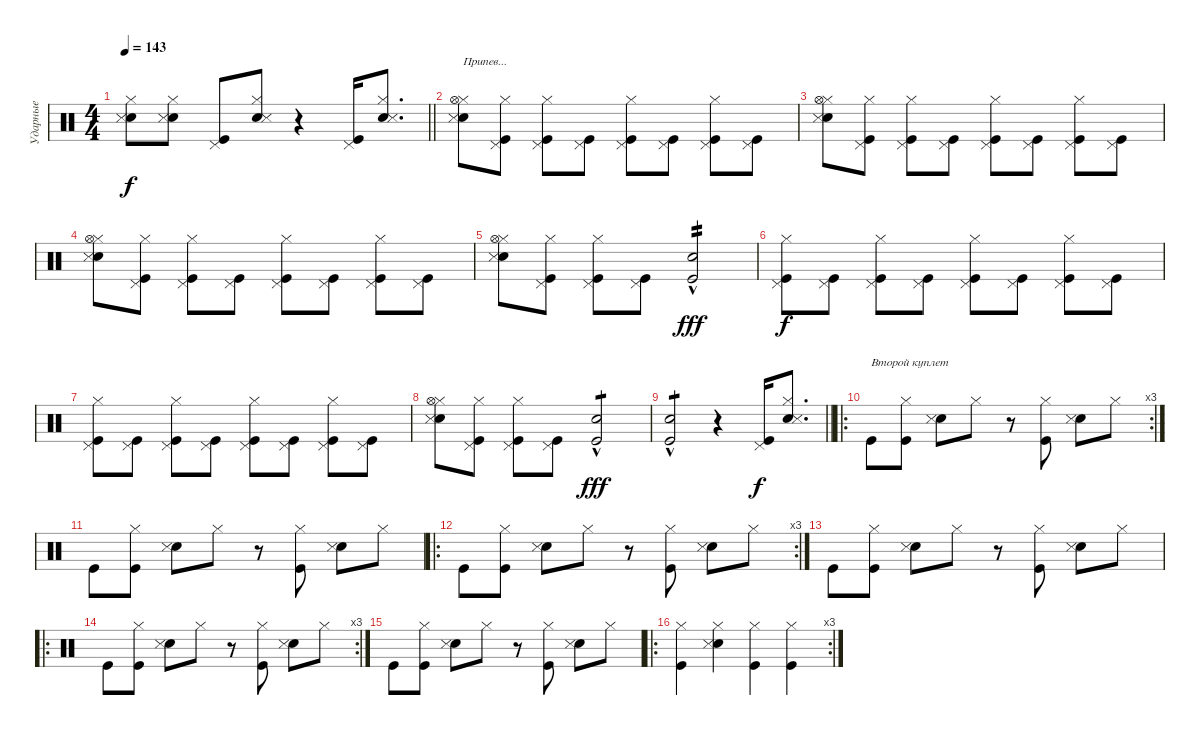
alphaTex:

\track ("Ударные" "Ударные") {instrument percussion}
\staff {score}
\articulation defaults
\ts (4 4)
\tempo 143
\clef neutral
\barLineRight lightlight
\ks c
("Snare (hit) 2" "Hi-Hat (closed)" "Snare (side stick) 3").8{dy f} ("Snare (hit) 2" "Hi-Hat (closed)" "Snare (side stick) 3").8 ("Kick (hit)" "Pedal Hi-Hat (hit)").8 ("Snare (hit) 2" "Hi-Hat (closed)" "Snare (side stick) 3").8 r.4 ("Kick (hit)" "Pedal Hi-Hat (hit)").16 ("Snare (hit) 2" "Hi-Hat (closed)" "Snare (side stick) 3").8{d} |
("Snare (hit) 2" "Hi-Hat (closed)" "Snare (side stick) 3" "Hi-Hat (open)").8{txt "Припев..."} ("Kick (hit)" "Pedal Hi-Hat (hit)" "Hi-Hat (closed)").8 ("Kick (hit)" "Pedal Hi-Hat (hit)" "Hi-Hat (closed)").8 ("Kick (hit)" "Pedal Hi-Hat (hit)").8 ("Kick (hit)" "Pedal Hi-Hat (hit)" "Hi-Hat (closed)").8 ("Kick (hit)" "Pedal Hi-Hat (hit)").8 ("Kick (hit)" "Pedal Hi-Hat (hit)" "Hi-Hat (closed)").8 ("Kick (hit)" "Pedal Hi-Hat (hit)").8 |
("Snare (hit) 2" "Hi-Hat (closed)" "Snare (side stick) 3" "Hi-Hat (open)").8 ("Kick (hit)" "Pedal Hi-Hat (hit)" "Hi-Hat (closed)").8 ("Kick (hit)" "Pedal Hi-Hat (hit)" "Hi-Hat (closed)").8 ("Kick (hit)" "Pedal Hi-Hat (hit)").8 ("Kick (hit)" "Pedal Hi-Hat (hit)" "Hi-Hat (closed)").8 ("Kick (hit)" "Pedal Hi-Hat (hit)").8 ("Kick (hit)" "Pedal Hi-Hat (hit)" "Hi-Hat (closed)").8 ("Kick (hit)" "Pedal Hi-Hat (hit)").8 |
("Snare (hit) 2" "Hi-Hat (closed)" "Snare (side stick) 3" "Hi-Hat (open)").8 ("Kick (hit)" "Pedal Hi-Hat (hit)" "Hi-Hat (closed)").8 ("Kick (hit)" "Pedal Hi-Hat (hit)" "Hi-Hat (closed)").8 ("Kick (hit)" "Pedal Hi-Hat (hit)").8 ("Kick (hit)" "Pedal Hi-Hat (hit)" "Hi-Hat (closed)").8 ("Kick (hit)" "Pedal Hi-Hat (hit)").8 ("Kick (hit)" "Pedal Hi-Hat (hit)" "Hi-Hat (closed)").8 ("Kick (hit)" "Pedal Hi-Hat (hit)").8 |
("Snare (hit) 2" "Hi-Hat (closed)" "Snare (side stick) 3" "Hi-Hat (open)").8 ("Kick (hit)" "Pedal Hi-Hat (hit)" "Hi-Hat (closed)").8 ("Kick (hit)" "Pedal Hi-Hat (hit)" "Hi-Hat (closed)").8 ("Kick (hit)" "Pedal Hi-Hat (hit)").8 ("Snare (hit) 2"{hac} "Kick (hit)"{hac}).2{tp 2 dy fff} |
("Kick (hit)" "Pedal Hi-Hat (hit)" "Hi-Hat (closed)").8{dy f} ("Kick (hit)" "Pedal Hi-Hat (hit)").8 ("Kick (hit)" "Pedal Hi-Hat (hit)" "Hi-Hat (closed)").8 ("Kick (hit)" "Pedal Hi-Hat (hit)").8 ("Kick (hit)" "Pedal Hi-Hat (hit)" "Hi-Hat (closed)").8 ("Kick (hit)" "Pedal Hi-Hat (hit)").8 ("Kick (hit)" "Pedal Hi-Hat (hit)" "Hi-Hat (closed)").8 ("Kick (hit)" "Pedal Hi-Hat (hit)").8 |
("Kick (hit)" "Pedal Hi-Hat (hit)" "Hi-Hat (closed)").8 ("Kick (hit)" "Pedal Hi-Hat (hit)").8 ("Kick (hit)" "Pedal Hi-Hat (hit)" "Hi-Hat (closed)").8 ("Kick (hit)" "Pedal Hi-Hat (hit)").8 ("Kick (hit)" "Pedal Hi-Hat (hit)" "Hi-Hat (closed)").8 ("Kick (hit)" "Pedal Hi-Hat (hit)").8 ("Kick (hit)" "Pedal Hi-Hat (hit)" "Hi-Hat (closed)").8 ("Kick (hit)" "Pedal Hi-Hat (hit)").8 |
("Snare (hit) 2" "Hi-Hat (closed)" "Snare (side stick) 3" "Hi-Hat (open)").8 ("Kick (hit)" "Pedal Hi-Hat (hit)" "Hi-Hat (closed)").8 ("Kick (hit)" "Pedal Hi-Hat (hit)" "Hi-Hat (closed)").8 ("Kick (hit)" "Pedal Hi-Hat (hit)").8 ("Snare (hit) 2"{hac} "Kick (hit)"{hac}).2{tp 1 dy fff} |
\barLineRight lightlight
("Snare (hit) 2"{hac} "Kick (hit)"{hac}).2{tp 1} r.4 ("Kick (hit)" "Pedal Hi-Hat (hit)").16{dy f} ("Snare (hit) 2" "Hi-Hat (closed)" "Snare (side stick) 3").8{d} |
\ro
\rc 3 "Kick (hit)".8{txt "Второй куплет"}
("Kick (hit)" "Hi-Hat (closed)").8 ("Snare (hit) 2" "Snare (side stick) 3").8 "Hi-Hat (closed)".8 r.8 ("Kick (hit)" "Hi-Hat (closed)").8 ("Snare (hit) 2" "Snare (side stick) 3").8 "Hi-Hat (closed)".8 |
"Kick (hit)".8 ("Kick (hit)" "Hi-Hat (closed)").8 ("Snare (hit) 2" "Snare (side stick) 3").8 "Hi-Hat (closed)".8 r.8 ("Kick (hit)" "Hi-Hat (closed)").8 ("Snare (hit) 2" "Snare (side stick) 3").8 "Hi-Hat (closed)".8 |
\ro
\rc 3 "Kick (hit)".8
("Kick (hit)" "Hi-Hat (closed)").8 ("Snare (hit) 2" "Snare (side stick) 3").8 "Hi-Hat (closed)".8 r.8 ("Kick (hit)" "Hi-Hat (closed)").8 ("Snare (hit) 2" "Snare (side stick) 3").8 "Hi-Hat (closed)".8 |
"Kick (hit)".8 ("Kick (hit)" "Hi-Hat (closed)").8 ("Snare (hit) 2" "Snare (side stick) 3").8 "Hi-Hat (closed)".8 r.8 ("Kick (hit)" "Hi-Hat (closed)").8 ("Snare (hit) 2" "Snare (side stick) 3").8 "Hi-Hat (closed)".8 |
\ro
\rc 3 "Kick (hit)".8
("Kick (hit)" "Hi-Hat (closed)").8 ("Snare (hit) 2" "Snare (side stick) 3").8 "Hi-Hat (closed)".8 r.8 ("Kick (hit)" "Hi-Hat (closed)").8 ("Snare (hit) 2" "Snare (side stick) 3").8 "Hi-Hat (closed)".8 |
"Kick (hit)".8 ("Kick (hit)" "Hi-Hat (closed)").8 ("Snare (hit) 2" "Snare (side stick) 3").8 "Hi-Hat (closed)".8 r.8 ("Kick (hit)" "Hi-Hat (closed)").8 ("Snare (hit) 2" "Snare (side stick) 3").8 "Hi-Hat (closed)".8 |
\ro
\rc 3
("Kick (hit)" "Hi-Hat (closed)").4 ("Snare (hit) 2" "Hi-Hat (closed)" "Snare (side stick) 3").4 ("Kick (hit)" "Hi-Hat (closed)").4 ("Kick (hit)" "Hi-Hat (closed)").4
